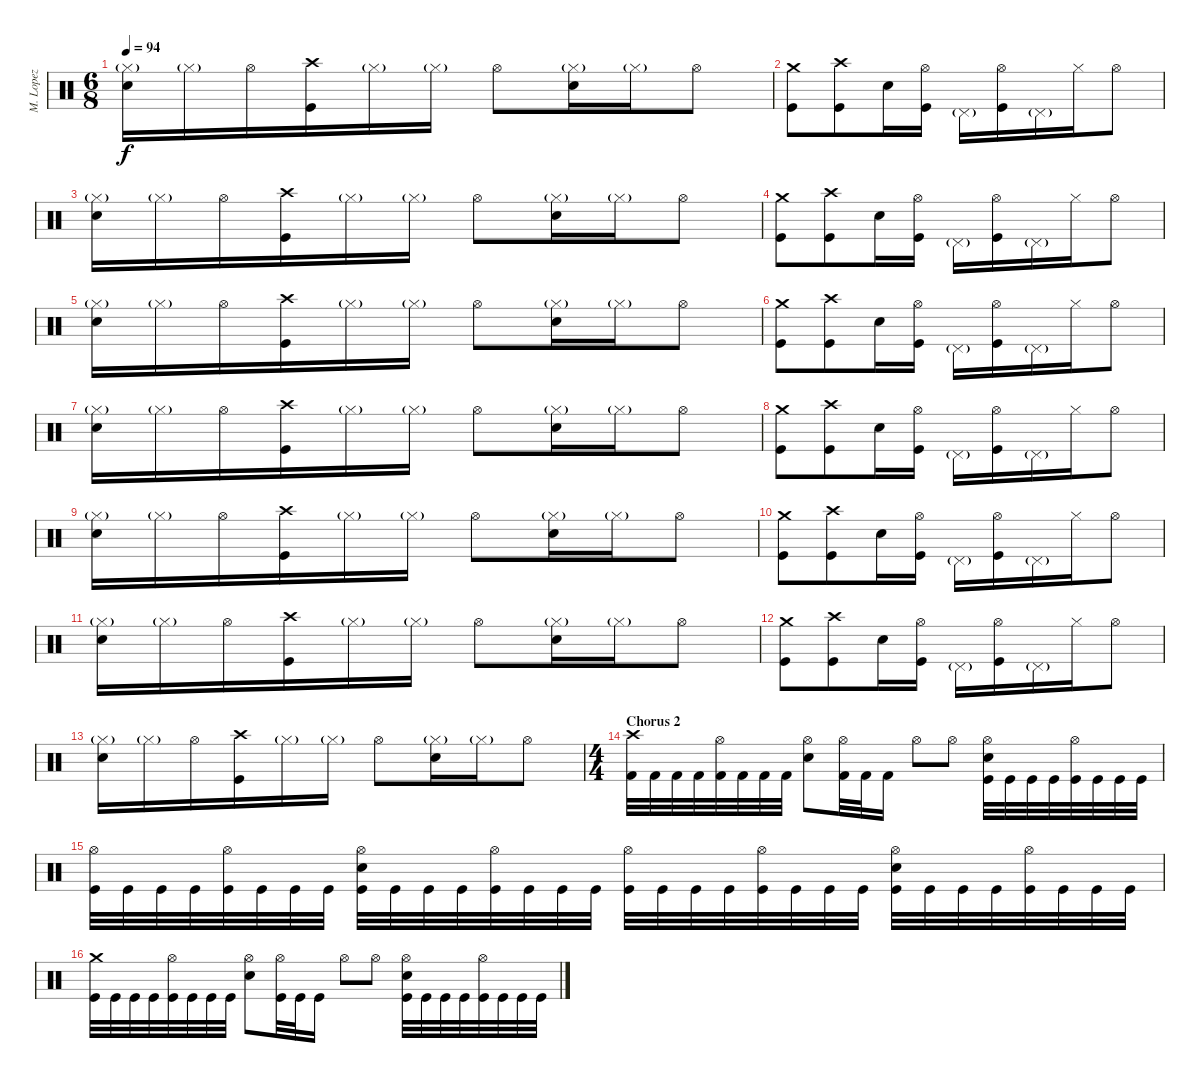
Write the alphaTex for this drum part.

\track ("M. Lopez" "M. Lopez") {instrument percussion}
\staff {score}
\articulation defaults
\ts (6 8)
\tempo 94
\clef neutral
\ks c
("Hi-Hat (closed)"{g} "Electric Snare (hit)").16{dy f} "Hi-Hat (closed)"{g}.16 "Hi-Hat (open)".16 ("Crash high (hit)" "Kick (hit)").16 "Hi-Hat (closed)"{g}.16 "Hi-Hat (closed)"{g}.16 "Hi-Hat (open)".8 ("Hi-Hat (closed)"{g} "Electric Snare (hit)").16 "Hi-Hat (closed)"{g}.16 "Hi-Hat (open)".8 |
("Crash medium (hit)" "Kick (hit)").8 ("Crash high (hit)" "Kick (hit)").8 "Electric Snare (hit)".16 ("Hi-Hat (open)" "Kick (hit)").16 "Pedal Hi-Hat (hit)"{g}.16 ("Hi-Hat (open)" "Kick (hit)").16 "Pedal Hi-Hat (hit)"{g}.16 "Hi-Hat (closed)".16 "Hi-Hat (open)".8 |
("Hi-Hat (closed)"{g} "Electric Snare (hit)").16 "Hi-Hat (closed)"{g}.16 "Hi-Hat (open)".16 ("Crash high (hit)" "Kick (hit)").16 "Hi-Hat (closed)"{g}.16 "Hi-Hat (closed)"{g}.16 "Hi-Hat (open)".8 ("Hi-Hat (closed)"{g} "Electric Snare (hit)").16 "Hi-Hat (closed)"{g}.16 "Hi-Hat (open)".8 |
("Crash medium (hit)" "Kick (hit)").8 ("Crash high (hit)" "Kick (hit)").8 "Electric Snare (hit)".16 ("Hi-Hat (open)" "Kick (hit)").16 "Pedal Hi-Hat (hit)"{g}.16 ("Hi-Hat (open)" "Kick (hit)").16 "Pedal Hi-Hat (hit)"{g}.16 "Hi-Hat (closed)".16 "Hi-Hat (open)".8 |
("Hi-Hat (closed)"{g} "Electric Snare (hit)").16 "Hi-Hat (closed)"{g}.16 "Hi-Hat (open)".16 ("Crash high (hit)" "Kick (hit)").16 "Hi-Hat (closed)"{g}.16 "Hi-Hat (closed)"{g}.16 "Hi-Hat (open)".8 ("Hi-Hat (closed)"{g} "Electric Snare (hit)").16 "Hi-Hat (closed)"{g}.16 "Hi-Hat (open)".8 |
("Crash medium (hit)" "Kick (hit)").8 ("Crash high (hit)" "Kick (hit)").8 "Electric Snare (hit)".16 ("Hi-Hat (open)" "Kick (hit)").16 "Pedal Hi-Hat (hit)"{g}.16 ("Hi-Hat (open)" "Kick (hit)").16 "Pedal Hi-Hat (hit)"{g}.16 "Hi-Hat (closed)".16 "Hi-Hat (open)".8 |
("Hi-Hat (closed)"{g} "Electric Snare (hit)").16 "Hi-Hat (closed)"{g}.16 "Hi-Hat (open)".16 ("Crash high (hit)" "Kick (hit)").16 "Hi-Hat (closed)"{g}.16 "Hi-Hat (closed)"{g}.16 "Hi-Hat (open)".8 ("Hi-Hat (closed)"{g} "Electric Snare (hit)").16 "Hi-Hat (closed)"{g}.16 "Hi-Hat (open)".8 |
("Crash medium (hit)" "Kick (hit)").8 ("Crash high (hit)" "Kick (hit)").8 "Electric Snare (hit)".16 ("Hi-Hat (open)" "Kick (hit)").16 "Pedal Hi-Hat (hit)"{g}.16 ("Hi-Hat (open)" "Kick (hit)").16 "Pedal Hi-Hat (hit)"{g}.16 "Hi-Hat (closed)".16 "Hi-Hat (open)".8 |
("Hi-Hat (closed)"{g} "Electric Snare (hit)").16 "Hi-Hat (closed)"{g}.16 "Hi-Hat (open)".16 ("Crash high (hit)" "Kick (hit)").16 "Hi-Hat (closed)"{g}.16 "Hi-Hat (closed)"{g}.16 "Hi-Hat (open)".8 ("Hi-Hat (closed)"{g} "Electric Snare (hit)").16 "Hi-Hat (closed)"{g}.16 "Hi-Hat (open)".8 |
("Crash medium (hit)" "Kick (hit)").8 ("Crash high (hit)" "Kick (hit)").8 "Electric Snare (hit)".16 ("Hi-Hat (open)" "Kick (hit)").16 "Pedal Hi-Hat (hit)"{g}.16 ("Hi-Hat (open)" "Kick (hit)").16 "Pedal Hi-Hat (hit)"{g}.16 "Hi-Hat (closed)".16 "Hi-Hat (open)".8 |
("Hi-Hat (closed)"{g} "Electric Snare (hit)").16 "Hi-Hat (closed)"{g}.16 "Hi-Hat (open)".16 ("Crash high (hit)" "Kick (hit)").16 "Hi-Hat (closed)"{g}.16 "Hi-Hat (closed)"{g}.16 "Hi-Hat (open)".8 ("Hi-Hat (closed)"{g} "Electric Snare (hit)").16 "Hi-Hat (closed)"{g}.16 "Hi-Hat (open)".8 |
("Crash medium (hit)" "Kick (hit)").8 ("Crash high (hit)" "Kick (hit)").8 "Electric Snare (hit)".16 ("Hi-Hat (open)" "Kick (hit)").16 "Pedal Hi-Hat (hit)"{g}.16 ("Hi-Hat (open)" "Kick (hit)").16 "Pedal Hi-Hat (hit)"{g}.16 "Hi-Hat (closed)".16 "Hi-Hat (open)".8 |
("Hi-Hat (closed)"{g} "Electric Snare (hit)").16 "Hi-Hat (closed)"{g}.16 "Hi-Hat (open)".16 ("Crash high (hit)" "Kick (hit)").16 "Hi-Hat (closed)"{g}.16 "Hi-Hat (closed)"{g}.16 "Hi-Hat (open)".8 ("Hi-Hat (closed)"{g} "Electric Snare (hit)").16 "Hi-Hat (closed)"{g}.16 "Hi-Hat (open)".8 |
\ts (4 4)
\section ("" "Chorus 2")
("Crash high (hit)" "Kick (hit) 2").32 "Kick (hit) 2".32 "Kick (hit) 2".32 "Kick (hit) 2".32 ("Hi-Hat (open)" "Kick (hit) 2").32 "Kick (hit) 2".32 "Kick (hit) 2".32 "Kick (hit) 2".32 ("Hi-Hat (open)" "Electric Snare (hit)").8 ("Hi-Hat (open)" "Kick (hit) 2").32 "Kick (hit) 2".32 "Kick (hit) 2".16 "Hi-Hat (open)".8 "Hi-Hat (open)".8 ("Hi-Hat (open)" "Electric Snare (hit)" "Kick (hit)").32 "Kick (hit)".32 "Kick (hit)".32 "Kick (hit)".32 ("Hi-Hat (open)" "Kick (hit)").32 "Kick (hit)".32 "Kick (hit)".32 "Kick (hit)".32 |
("Hi-Hat (open)" "Kick (hit)").32 "Kick (hit)".32 "Kick (hit)".32 "Kick (hit)".32 ("Hi-Hat (open)" "Kick (hit)").32 "Kick (hit)".32 "Kick (hit)".32 "Kick (hit)".32 ("Hi-Hat (open)" "Electric Snare (hit)" "Kick (hit)").32 "Kick (hit)".32 "Kick (hit)".32 "Kick (hit)".32 ("Hi-Hat (open)" "Kick (hit)").32 "Kick (hit)".32 "Kick (hit)".32 "Kick (hit)".32 ("Hi-Hat (open)" "Kick (hit)").32 "Kick (hit)".32 "Kick (hit)".32 "Kick (hit)".32 ("Hi-Hat (open)" "Kick (hit)").32 "Kick (hit)".32 "Kick (hit)".32 "Kick (hit)".32 ("Hi-Hat (open)" "Electric Snare (hit)" "Kick (hit)").32 "Kick (hit)".32 "Kick (hit)".32 "Kick (hit)".32 ("Hi-Hat (open)" "Kick (hit)").32 "Kick (hit)".32 "Kick (hit)".32 "Kick (hit)".32 |
("Crash medium (hit)" "Kick (hit)").32 "Kick (hit)".32 "Kick (hit)".32 "Kick (hit)".32 ("Hi-Hat (open)" "Kick (hit)").32 "Kick (hit)".32 "Kick (hit)".32 "Kick (hit)".32 ("Hi-Hat (open)" "Electric Snare (hit)").8 ("Hi-Hat (open)" "Kick (hit)").32 "Kick (hit)".32 "Kick (hit)".16 "Hi-Hat (open)".8 "Hi-Hat (open)".8 ("Hi-Hat (open)" "Electric Snare (hit)" "Kick (hit)").32 "Kick (hit)".32 "Kick (hit)".32 "Kick (hit)".32 ("Hi-Hat (open)" "Kick (hit)").32 "Kick (hit)".32 "Kick (hit)".32 "Kick (hit)".32
